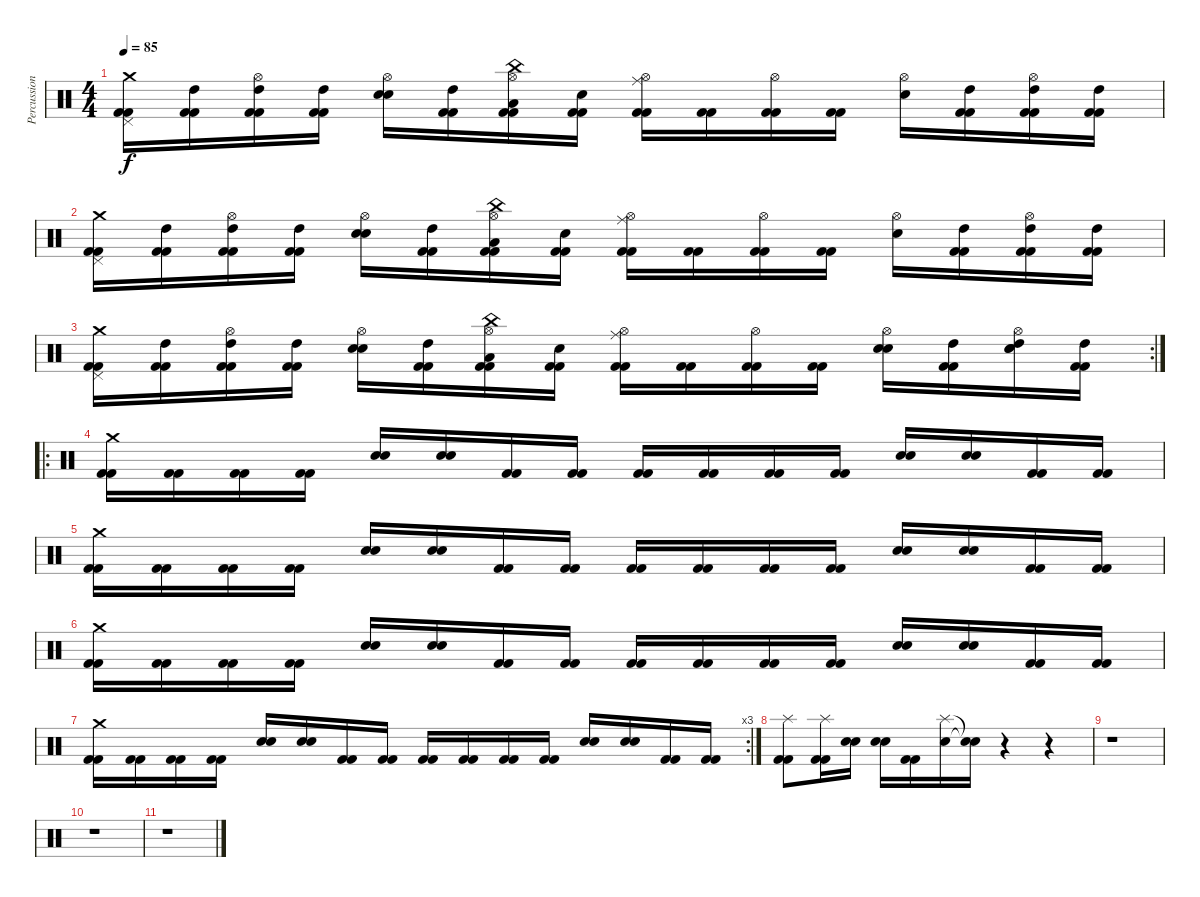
\track ("Percussion" "Percussion") {instrument percussion}
\staff {score}
\articulation defaults
\ts (4 4)
\tempo 85
\clef neutral
\ks c
("Pedal Hi-Hat (hit)" "Crash medium (hit)" "Kick (hit) 2" "Kick (hit) 2").16{dy f} ("High Tom (hit)" "Kick (hit) 2" "Kick (hit) 2").16 ("Hi-Hat (open)" "High Tom (hit)" "Kick (hit) 2" "Kick (hit) 2").16 ("High Tom (hit)" "Kick (hit) 2" "Kick (hit) 2").16 ("Hi-Hat (open)" "Electric Snare (hit)" "Snare (hit)").16 ("High Tom (hit)" "Kick (hit) 2" "Kick (hit) 2").16 ("China (hit)" "Hi-Hat (open)" "Low Tom (hit)" "Kick (hit) 2" "Kick (hit) 2").16 ("Snare (hit)" "Kick (hit) 2" "Kick (hit) 2").16 ("Ride (middle)" "Hi-Hat (open)" "Kick (hit) 2" "Kick (hit) 2").16 ("Kick (hit) 2" "Kick (hit) 2").16 ("Hi-Hat (open)" "Kick (hit) 2" "Kick (hit) 2").16 ("Kick (hit) 2" "Kick (hit) 2").16 ("Hi-Hat (open)" "Electric Snare (hit)").16 ("High Tom (hit)" "Kick (hit) 2" "Kick (hit) 2").16 ("Hi-Hat (open)" "High Tom (hit)" "Kick (hit) 2" "Kick (hit) 2").16 ("High Tom (hit)" "Kick (hit) 2" "Kick (hit) 2").16 |
("Pedal Hi-Hat (hit)" "Crash medium (hit)" "Kick (hit) 2" "Kick (hit) 2").16 ("High Tom (hit)" "Kick (hit) 2" "Kick (hit) 2").16 ("Hi-Hat (open)" "High Tom (hit)" "Kick (hit) 2" "Kick (hit) 2").16 ("High Tom (hit)" "Kick (hit) 2" "Kick (hit) 2").16 ("Hi-Hat (open)" "Electric Snare (hit)" "Snare (hit)").16 ("High Tom (hit)" "Kick (hit) 2" "Kick (hit) 2").16 ("China (hit)" "Hi-Hat (open)" "Low Tom (hit)" "Kick (hit) 2" "Kick (hit) 2").16 ("Snare (hit)" "Kick (hit) 2" "Kick (hit) 2").16 ("Ride (middle)" "Hi-Hat (open)" "Kick (hit) 2" "Kick (hit) 2").16 ("Kick (hit) 2" "Kick (hit) 2").16 ("Hi-Hat (open)" "Kick (hit) 2" "Kick (hit) 2").16 ("Kick (hit) 2" "Kick (hit) 2").16 ("Hi-Hat (open)" "Electric Snare (hit)").16 ("High Tom (hit)" "Kick (hit) 2" "Kick (hit) 2").16 ("Hi-Hat (open)" "High Tom (hit)" "Kick (hit) 2" "Kick (hit) 2").16 ("High Tom (hit)" "Kick (hit) 2" "Kick (hit) 2").16 |
\rc 2
("Pedal Hi-Hat (hit)" "Crash medium (hit)" "Kick (hit) 2" "Kick (hit) 2").16 ("High Tom (hit)" "Kick (hit) 2" "Kick (hit) 2").16 ("Hi-Hat (open)" "High Tom (hit)" "Kick (hit) 2" "Kick (hit) 2").16 ("High Tom (hit)" "Kick (hit) 2" "Kick (hit) 2").16 ("Hi-Hat (open)" "Electric Snare (hit)" "Snare (hit)").16 ("High Tom (hit)" "Kick (hit) 2" "Kick (hit) 2").16 ("China (hit)" "Hi-Hat (open)" "Low Tom (hit)" "Kick (hit) 2" "Kick (hit) 2").16 ("Snare (hit)" "Kick (hit) 2" "Kick (hit) 2").16 ("Ride (middle)" "Hi-Hat (open)" "Kick (hit) 2" "Kick (hit) 2").16 ("Kick (hit) 2" "Kick (hit) 2").16 ("Hi-Hat (open)" "Kick (hit) 2" "Kick (hit) 2").16 ("Kick (hit) 2" "Kick (hit) 2").16 ("Hi-Hat (open)" "Electric Snare (hit)" "Electric Snare (hit)").16 ("High Tom (hit)" "Kick (hit) 2" "Kick (hit) 2").16 ("Hi-Hat (open)" "High Tom (hit)" "Electric Snare (hit)" "Electric Snare (hit)").16 ("High Tom (hit)" "Kick (hit) 2" "Kick (hit) 2").16 |
\ro
("Crash medium (hit)" "Kick (hit) 2" "Kick (hit) 2").16 ("Kick (hit) 2" "Kick (hit) 2").16 ("Kick (hit) 2" "Kick (hit) 2").16 ("Kick (hit) 2" "Kick (hit) 2").16 ("Electric Snare (hit)" "Electric Snare (hit)").16 ("Electric Snare (hit)" "Electric Snare (hit)").16 ("Kick (hit) 2" "Kick (hit) 2").16 ("Kick (hit) 2" "Kick (hit) 2").16 ("Kick (hit) 2" "Kick (hit) 2").16 ("Kick (hit) 2" "Kick (hit) 2").16 ("Kick (hit) 2" "Kick (hit) 2").16 ("Kick (hit) 2" "Kick (hit) 2").16 ("Electric Snare (hit)" "Electric Snare (hit)").16 ("Electric Snare (hit)" "Electric Snare (hit)").16 ("Kick (hit) 2" "Kick (hit) 2").16 ("Kick (hit) 2" "Kick (hit) 2").16 |
("Crash medium (hit)" "Kick (hit) 2" "Kick (hit) 2").16 ("Kick (hit) 2" "Kick (hit) 2").16 ("Kick (hit) 2" "Kick (hit) 2").16 ("Kick (hit) 2" "Kick (hit) 2").16 ("Electric Snare (hit)" "Electric Snare (hit)").16 ("Electric Snare (hit)" "Electric Snare (hit)").16 ("Kick (hit) 2" "Kick (hit) 2").16 ("Kick (hit) 2" "Kick (hit) 2").16 ("Kick (hit) 2" "Kick (hit) 2").16 ("Kick (hit) 2" "Kick (hit) 2").16 ("Kick (hit) 2" "Kick (hit) 2").16 ("Kick (hit) 2" "Kick (hit) 2").16 ("Electric Snare (hit)" "Electric Snare (hit)").16 ("Electric Snare (hit)" "Electric Snare (hit)").16 ("Kick (hit) 2" "Kick (hit) 2").16 ("Kick (hit) 2" "Kick (hit) 2").16 |
("Crash medium (hit)" "Kick (hit) 2" "Kick (hit) 2").16 ("Kick (hit) 2" "Kick (hit) 2").16 ("Kick (hit) 2" "Kick (hit) 2").16 ("Kick (hit) 2" "Kick (hit) 2").16 ("Electric Snare (hit)" "Electric Snare (hit)").16 ("Electric Snare (hit)" "Electric Snare (hit)").16 ("Kick (hit) 2" "Kick (hit) 2").16 ("Kick (hit) 2" "Kick (hit) 2").16 ("Kick (hit) 2" "Kick (hit) 2").16 ("Kick (hit) 2" "Kick (hit) 2").16 ("Kick (hit) 2" "Kick (hit) 2").16 ("Kick (hit) 2" "Kick (hit) 2").16 ("Snare (hit) 2" "Snare (hit) 2").16 ("Electric Snare (hit)" "Electric Snare (hit)").16 ("Kick (hit) 2" "Kick (hit) 2").16 ("Kick (hit) 2" "Kick (hit) 2").16 |
\rc 3
("Crash medium (hit)" "Kick (hit) 2" "Kick (hit) 2").16 ("Kick (hit) 2" "Kick (hit) 2").16 ("Kick (hit) 2" "Kick (hit) 2").16 ("Kick (hit) 2" "Kick (hit) 2").16 ("Electric Snare (hit)" "Electric Snare (hit)").16 ("Electric Snare (hit)" "Electric Snare (hit)").16 ("Kick (hit) 2" "Kick (hit) 2").16 ("Kick (hit) 2" "Kick (hit) 2").16 ("Kick (hit) 2" "Kick (hit) 2").16 ("Kick (hit) 2" "Kick (hit) 2").16 ("Kick (hit) 2" "Kick (hit) 2").16 ("Kick (hit) 2" "Kick (hit) 2").16 ("Electric Snare (hit)" "Electric Snare (hit)").16 ("Electric Snare (hit)" "Electric Snare (hit)").16 ("Kick (hit) 2" "Kick (hit) 2").16 ("Kick (hit) 2" "Kick (hit) 2").16 |
("Splash (hit)" "Kick (hit) 2" "Kick (hit) 2").8 ("Splash (hit)" "Kick (hit) 2" "Kick (hit) 2").16 ("Electric Snare (hit)" "Electric Snare (hit)").16 ("Electric Snare (hit)" "Electric Snare (hit)").16 ("Kick (hit) 2" "Kick (hit) 2").16 ("Splash (hit)" "Electric Snare (hit)").16 ("Snare (hit)"{t} "Snare (hit)"{t}).16 r.4 r.4 |
r.1 |
r.1 |
r.1
